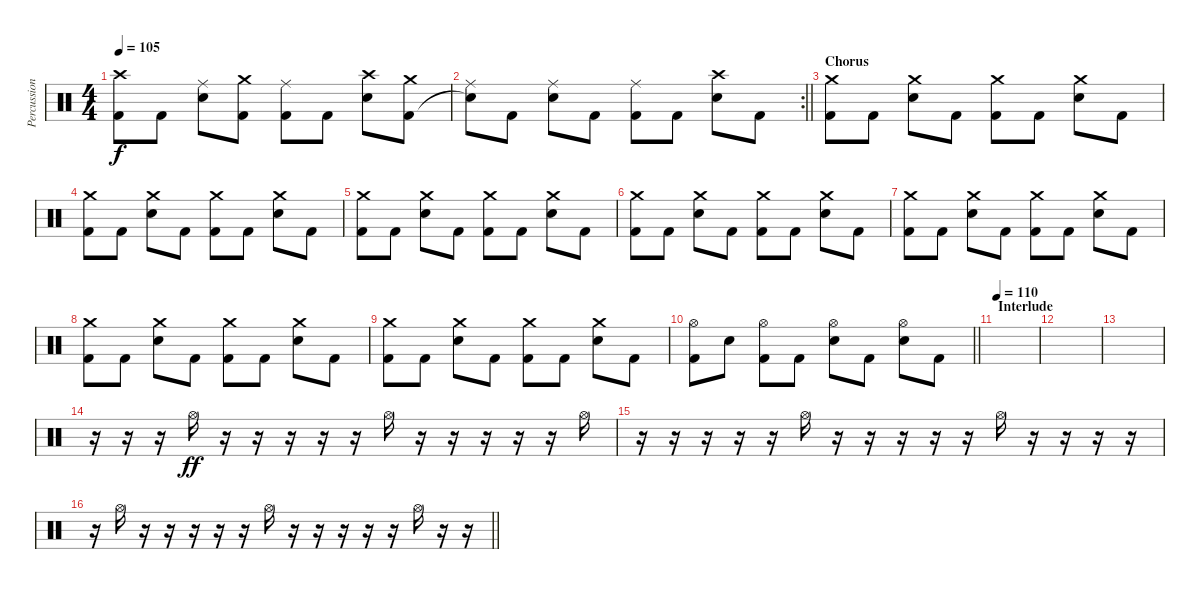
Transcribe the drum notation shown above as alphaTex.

\track ("Percussions" "Percussion") {instrument percussion}
\staff {score}
\articulation defaults
\ts (4 4)
\tempo 105
\clef neutral
\ks c
("Crash high (hit)" "Kick (hit) 2").8{dy f} "Kick (hit) 2".8 ("Ride (middle)" "Electric Snare (hit)").8 ("Crash medium (hit)" "Kick (hit) 2").8 ("Ride (middle)" "Kick (hit) 2").8 "Kick (hit) 2".8 ("Crash high (hit)" "Electric Snare (hit)").8 ("Crash medium (hit)" "Kick (hit) 2").8 |
\rc 2
\barLineRight lightlight
("Ride (middle)" "Snare (hit)"{t}).8 "Kick (hit) 2".8 ("Ride (middle)" "Electric Snare (hit)").8 "Kick (hit) 2".8 ("Ride (middle)" "Kick (hit) 2").8 "Kick (hit) 2".8 ("Crash high (hit)" "Electric Snare (hit)").8 "Kick (hit) 2".8 |
\section ("" "Chorus")
("Crash medium (hit)" "Kick (hit) 2").8 "Kick (hit) 2".8 ("Crash medium (hit)" "Electric Snare (hit)").8 "Kick (hit) 2".8 ("Crash medium (hit)" "Kick (hit) 2").8 "Kick (hit) 2".8 ("Crash medium (hit)" "Electric Snare (hit)").8 "Kick (hit) 2".8 |
("Crash medium (hit)" "Kick (hit) 2").8 "Kick (hit) 2".8 ("Crash medium (hit)" "Electric Snare (hit)").8 "Kick (hit) 2".8 ("Crash medium (hit)" "Kick (hit) 2").8 "Kick (hit) 2".8 ("Crash medium (hit)" "Electric Snare (hit)").8 "Kick (hit) 2".8 |
("Crash medium (hit)" "Kick (hit) 2").8 "Kick (hit) 2".8 ("Crash medium (hit)" "Electric Snare (hit)").8 "Kick (hit) 2".8 ("Crash medium (hit)" "Kick (hit) 2").8 "Kick (hit) 2".8 ("Crash medium (hit)" "Electric Snare (hit)").8 "Kick (hit) 2".8 |
("Crash medium (hit)" "Kick (hit) 2").8 "Kick (hit) 2".8 ("Crash medium (hit)" "Electric Snare (hit)").8 "Kick (hit) 2".8 ("Crash medium (hit)" "Kick (hit) 2").8 "Kick (hit) 2".8 ("Crash medium (hit)" "Electric Snare (hit)").8 "Kick (hit) 2".8 |
("Crash medium (hit)" "Kick (hit) 2").8 "Kick (hit) 2".8 ("Crash medium (hit)" "Electric Snare (hit)").8 "Kick (hit) 2".8 ("Crash medium (hit)" "Kick (hit) 2").8 "Kick (hit) 2".8 ("Crash medium (hit)" "Electric Snare (hit)").8 "Kick (hit) 2".8 |
("Crash medium (hit)" "Kick (hit) 2").8 "Kick (hit) 2".8 ("Crash medium (hit)" "Electric Snare (hit)").8 "Kick (hit) 2".8 ("Crash medium (hit)" "Kick (hit) 2").8 "Kick (hit) 2".8 ("Crash medium (hit)" "Electric Snare (hit)").8 "Kick (hit) 2".8 |
("Crash medium (hit)" "Kick (hit) 2").8 "Kick (hit) 2".8 ("Crash medium (hit)" "Electric Snare (hit)").8 "Kick (hit) 2".8 ("Crash medium (hit)" "Kick (hit) 2").8 "Kick (hit) 2".8 ("Crash medium (hit)" "Electric Snare (hit)").8 "Kick (hit) 2".8 |
\barLineRight lightlight
("Hi-Hat (open)" "Kick (hit) 2").8 "Electric Snare (hit)".8 ("Hi-Hat (open)" "Kick (hit) 2").8 "Kick (hit) 2".8 ("Hi-Hat (open)" "Electric Snare (hit)").8 "Kick (hit) 2".8 ("Hi-Hat (open)" "Electric Snare (hit)").8 "Kick (hit) 2".8 |
\section ("" "Interlude")
\tempo 110
|
|
|
r.16 r.16 r.16 "Hi-Hat (open)".16{dy ff} r.16 r.16 r.16 r.16 r.16 "Hi-Hat (open)".16 r.16 r.16 r.16 r.16 r.16 "Hi-Hat (open)".16 |
r.16 r.16 r.16 r.16 r.16 "Hi-Hat (open)".16 r.16 r.16 r.16 r.16 r.16 "Hi-Hat (open)".16 r.16 r.16 r.16 r.16 |
\barLineRight lightlight
r.16 "Hi-Hat (open)".16 r.16 r.16 r.16 r.16 r.16 "Hi-Hat (open)".16 r.16 r.16 r.16 r.16 r.16 "Hi-Hat (open)".16 r.16 r.16
